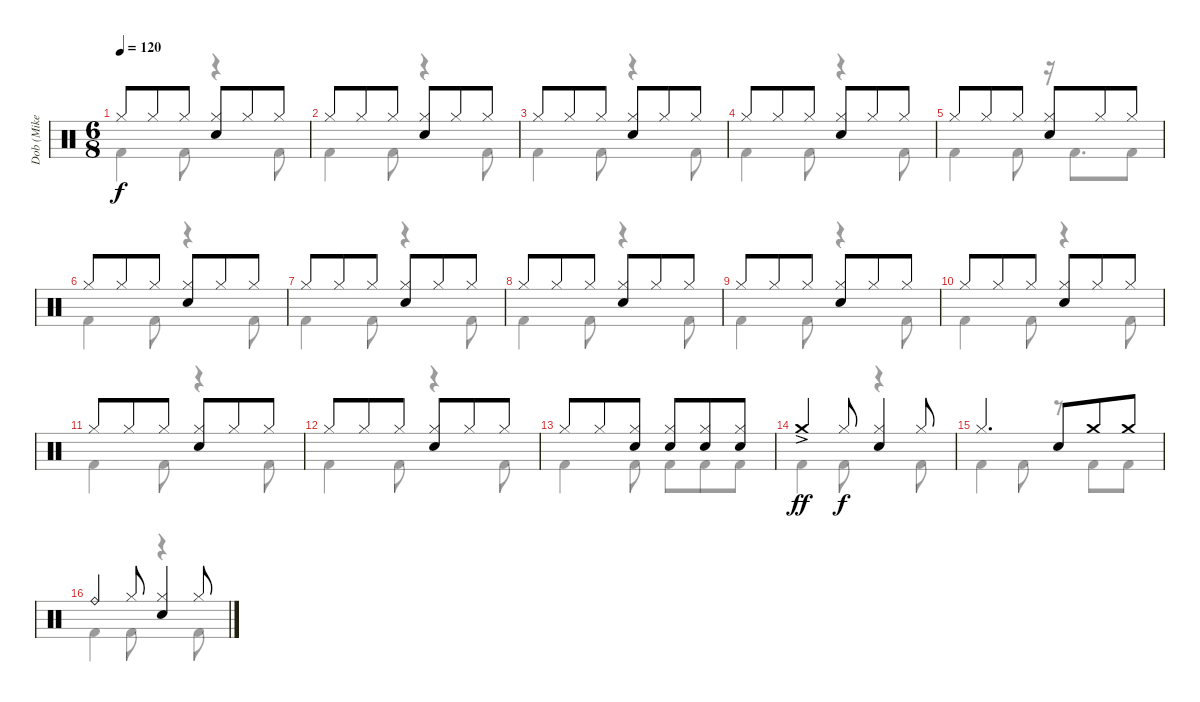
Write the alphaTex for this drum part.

\track ("Dob (Mike Terrana)" "Dob (Mike ") {instrument percussion}
\staff {score}
\articulation defaults
\voice
\ts (6 8)
\tempo 120
\clef neutral
\ks c "Hi-Hat (closed)".8{dy f} "Hi-Hat (closed)".8 "Hi-Hat (closed)".8
("Hi-Hat (closed)" "Electric Snare (hit)").8 "Hi-Hat (closed)".8 "Hi-Hat (closed)".8 |
"Hi-Hat (closed)".8 "Hi-Hat (closed)".8 "Hi-Hat (closed)".8 ("Hi-Hat (closed)" "Electric Snare (hit)").8 "Hi-Hat (closed)".8 "Hi-Hat (closed)".8 |
"Hi-Hat (closed)".8 "Hi-Hat (closed)".8 "Hi-Hat (closed)".8 ("Hi-Hat (closed)" "Electric Snare (hit)").8 "Hi-Hat (closed)".8 "Hi-Hat (closed)".8 |
"Hi-Hat (closed)".8 "Hi-Hat (closed)".8 "Hi-Hat (closed)".8 ("Hi-Hat (closed)" "Electric Snare (hit)").8 "Hi-Hat (closed)".8 "Hi-Hat (closed)".8 |
"Hi-Hat (closed)".8 "Hi-Hat (closed)".8 "Hi-Hat (closed)".8 ("Hi-Hat (closed)" "Electric Snare (hit)").8 "Hi-Hat (closed)".8 "Hi-Hat (closed)".8 |
"Hi-Hat (closed)".8 "Hi-Hat (closed)".8 "Hi-Hat (closed)".8 ("Hi-Hat (closed)" "Electric Snare (hit)").8 "Hi-Hat (closed)".8 "Hi-Hat (closed)".8 |
"Hi-Hat (closed)".8 "Hi-Hat (closed)".8 "Hi-Hat (closed)".8 ("Hi-Hat (closed)" "Electric Snare (hit)").8 "Hi-Hat (closed)".8 "Hi-Hat (closed)".8 |
"Hi-Hat (closed)".8 "Hi-Hat (closed)".8 "Hi-Hat (closed)".8 ("Hi-Hat (closed)" "Electric Snare (hit)").8 "Hi-Hat (closed)".8 "Hi-Hat (closed)".8 |
"Hi-Hat (closed)".8 "Hi-Hat (closed)".8 "Hi-Hat (closed)".8 ("Hi-Hat (closed)" "Electric Snare (hit)").8 "Hi-Hat (closed)".8 "Hi-Hat (closed)".8 |
"Hi-Hat (closed)".8 "Hi-Hat (closed)".8 "Hi-Hat (closed)".8 ("Hi-Hat (closed)" "Electric Snare (hit)").8 "Hi-Hat (closed)".8 "Hi-Hat (closed)".8 |
"Hi-Hat (closed)".8 "Hi-Hat (closed)".8 "Hi-Hat (closed)".8 ("Hi-Hat (closed)" "Electric Snare (hit)").8 "Hi-Hat (closed)".8 "Hi-Hat (closed)".8 |
"Hi-Hat (closed)".8 "Hi-Hat (closed)".8 "Hi-Hat (closed)".8 ("Hi-Hat (closed)" "Electric Snare (hit)").8 "Hi-Hat (closed)".8 "Hi-Hat (closed)".8 |
"Hi-Hat (closed)".8 "Hi-Hat (closed)".8 ("Hi-Hat (closed)" "Electric Snare (hit)").8 ("Hi-Hat (closed)" "Electric Snare (hit)").8 ("Hi-Hat (closed)" "Electric Snare (hit)").8 ("Hi-Hat (closed)" "Electric Snare (hit)").8 |
"Crash medium (hit)"{ac}.4{dy ff} "Hi-Hat (closed)".8{dy f} ("Hi-Hat (closed)" "Electric Snare (hit)").4 "Hi-Hat (closed)".8 |
"Hi-Hat (closed)".4{d} "Electric Snare (hit)".8 "Crash medium (hit)".8 "Crash medium (hit)".8 |
"Ride (bell)".4 "Hi-Hat (closed)".8 ("Hi-Hat (closed)" "Electric Snare (hit)").4 "Hi-Hat (closed)".8
\voice
\clef neutral
\ottava regular
\simile none
\ks c "Kick (hit) 2".4{dy f} "Kick (hit) 2".8
r.4 "Kick (hit) 2".8 |
"Kick (hit) 2".4 "Kick (hit) 2".8 r.4 "Kick (hit) 2".8 |
"Kick (hit) 2".4 "Kick (hit) 2".8 r.4 "Kick (hit) 2".8 |
"Kick (hit) 2".4 "Kick (hit) 2".8 r.4 "Kick (hit) 2".8 |
"Kick (hit) 2".4 "Kick (hit) 2".8 r.16 "Kick (hit) 2".8{d} "Kick (hit) 2".8 |
"Kick (hit) 2".4 "Kick (hit) 2".8 r.4 "Kick (hit) 2".8 |
"Kick (hit) 2".4 "Kick (hit) 2".8 r.4 "Kick (hit) 2".8 |
"Kick (hit) 2".4 "Kick (hit) 2".8 r.4 "Kick (hit) 2".8 |
"Kick (hit) 2".4 "Kick (hit) 2".8 r.4 "Kick (hit) 2".8 |
"Kick (hit) 2".4 "Kick (hit) 2".8 r.4 "Kick (hit) 2".8 |
"Kick (hit) 2".4 "Kick (hit) 2".8 r.4 "Kick (hit) 2".8 |
"Kick (hit) 2".4 "Kick (hit) 2".8 r.4 "Kick (hit) 2".8 |
"Kick (hit) 2".4 "Kick (hit) 2".8 "Kick (hit) 2".8 "Kick (hit) 2".8 "Kick (hit) 2".8 |
"Kick (hit) 2".4 "Kick (hit) 2".8 r.4 "Kick (hit) 2".8 |
"Kick (hit) 2".4 "Kick (hit) 2".8 r.8 "Kick (hit) 2".8 "Kick (hit) 2".8 |
"Kick (hit) 2".4 "Kick (hit) 2".8 r.4 "Kick (hit) 2".8
